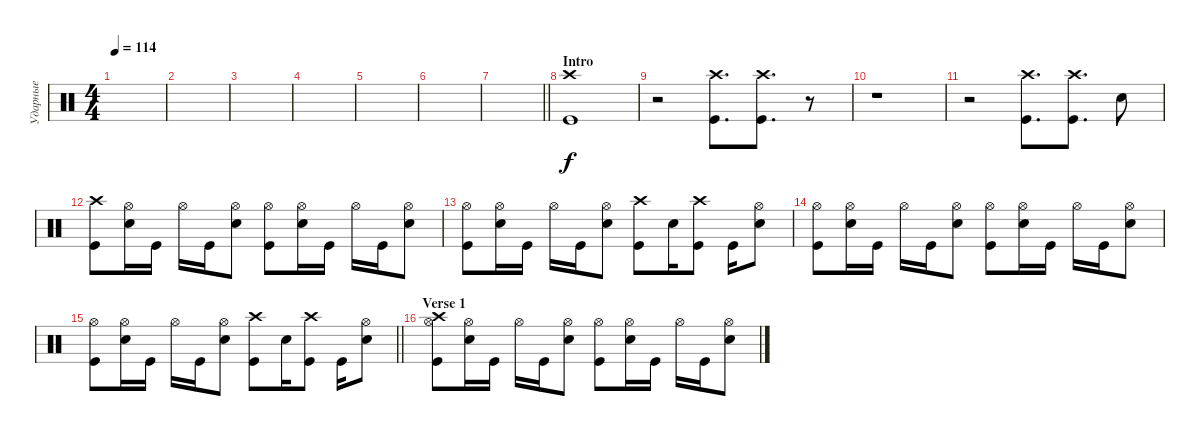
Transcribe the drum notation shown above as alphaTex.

\track ("Ударные" "Ударные") {instrument percussion}
\staff {score}
\articulation defaults
\ts (4 4)
\tempo 114
\clef neutral
\ks c
|
|
|
|
|
|
\barLineRight lightlight
|
\section ("" "Intro")
\ks aminor
("Crash high (hit)" "Kick (hit)").1 |
r.2 ("Crash high (hit)" "Kick (hit)").8{d} ("Crash high (hit)" "Kick (hit)").8{d} r.8 |
r.1 |
r.2 ("Crash high (hit)" "Kick (hit)").8{d} ("Crash high (hit)" "Kick (hit)").8{d} "Snare (hit) 2".8 |
("Crash high (hit)" "Kick (hit)").8 ("Hi-Hat (open)" "Snare (hit) 2").16 "Kick (hit)".16 "Hi-Hat (open)".16 "Kick (hit)".16 ("Hi-Hat (open)" "Snare (hit) 2").8 ("Kick (hit)" "Hi-Hat (open)").8 ("Hi-Hat (open)" "Snare (hit) 2").16 "Kick (hit)".16 "Hi-Hat (open)".16 "Kick (hit)".16 ("Hi-Hat (open)" "Snare (hit) 2").8 |
("Kick (hit)" "Hi-Hat (open)").8 ("Hi-Hat (open)" "Snare (hit) 2").16 "Kick (hit)".16 "Hi-Hat (open)".16 "Kick (hit)".16 ("Hi-Hat (open)" "Snare (hit) 2").8 ("Crash high (hit)" "Kick (hit)").8 "Snare (hit) 2".16 ("Crash high (hit)" "Kick (hit)").8 "Kick (hit)".16 ("Hi-Hat (open)" "Snare (hit) 2").8 |
("Hi-Hat (open)" "Kick (hit)").8 ("Hi-Hat (open)" "Snare (hit) 2").16 "Kick (hit)".16 "Hi-Hat (open)".16 "Kick (hit)".16 ("Hi-Hat (open)" "Snare (hit) 2").8 ("Kick (hit)" "Hi-Hat (open)").8 ("Hi-Hat (open)" "Snare (hit) 2").16 "Kick (hit)".16 "Hi-Hat (open)".16 "Kick (hit)".16 ("Hi-Hat (open)" "Snare (hit) 2").8 |
\barLineRight lightlight
("Kick (hit)" "Hi-Hat (open)").8 ("Hi-Hat (open)" "Snare (hit) 2").16 "Kick (hit)".16 "Hi-Hat (open)".16 "Kick (hit)".16 ("Hi-Hat (open)" "Snare (hit) 2").8 ("Crash high (hit)" "Kick (hit)").8 "Snare (hit) 2".16 ("Crash high (hit)" "Kick (hit)").8 "Kick (hit)".16 ("Hi-Hat (open)" "Snare (hit) 2").8 |
\section ("" "Verse 1")
("Crash high (hit)" "Hi-Hat (open)" "Kick (hit)").8 ("Hi-Hat (open)" "Snare (hit) 2").16 "Kick (hit)".16 "Hi-Hat (open)".16 "Kick (hit)".16 ("Hi-Hat (open)" "Snare (hit) 2").8 ("Kick (hit)" "Hi-Hat (open)").8 ("Hi-Hat (open)" "Snare (hit) 2").16 "Kick (hit)".16 "Hi-Hat (open)".16 "Kick (hit)".16 ("Hi-Hat (open)" "Snare (hit) 2").8
